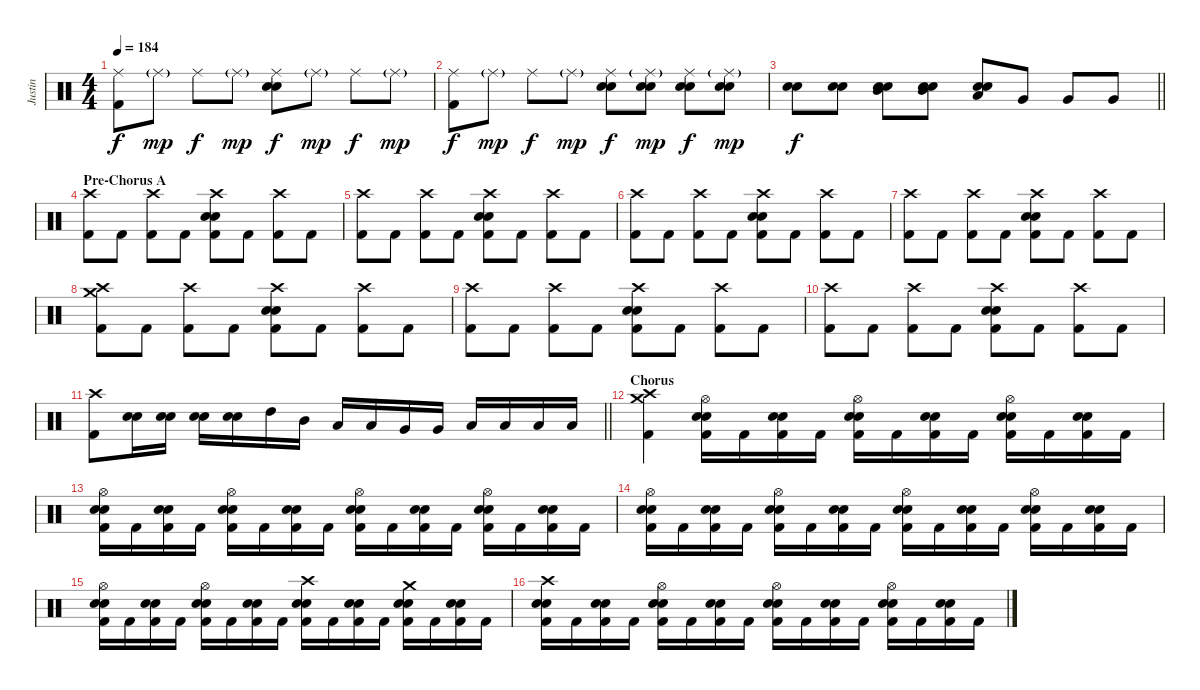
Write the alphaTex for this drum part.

\track ("Justin" "Justin") {instrument percussion}
\staff {score}
\articulation defaults
\ts (4 4)
\tempo 184
\clef neutral
\ks c
("Ride (middle)" "Kick (hit) 2").8{dy f} "Ride (middle)"{g}.8{dy mp} "Ride (middle)".8{dy f} "Ride (middle)"{g}.8{dy mp} ("Ride (middle)" "Electric Snare (hit)" "Snare (hit) 2").8{dy f} "Ride (middle)"{g}.8{dy mp} "Ride (middle)".8{dy f} "Ride (middle)"{g}.8{dy mp} |
("Ride (middle)" "Kick (hit) 2").8{dy f} "Ride (middle)"{g}.8{dy mp} "Ride (middle)".8{dy f} "Ride (middle)"{g}.8{dy mp} ("Ride (middle)" "Electric Snare (hit)" "Snare (hit) 2").8{dy f} ("Ride (middle)"{g} "Electric Snare (hit)" "Snare (hit) 2").8{dy mp} ("Ride (middle)" "Electric Snare (hit)" "Snare (hit) 2").8{dy f} ("Ride (middle)"{g} "Electric Snare (hit)" "Snare (hit) 2").8{dy mp} |
\barLineRight lightlight
("Electric Snare (hit)" "Snare (hit) 2").8{dy f} ("Electric Snare (hit)" "Snare (hit) 2").8 ("Electric Snare (hit)" "Snare (hit) 2" "Mid Tom (hit)").8 ("Electric Snare (hit)" "Snare (hit) 2" "Mid Tom (hit)").8 ("Electric Snare (hit)" "Snare (hit) 2" "Low Tom (hit)").8 "Very Low Tom (hit)".8 "Very Low Tom (hit)".8 "Very Low Tom (hit)".8 |
\section ("" "Pre-Chorus A")
("Crash high (hit)" "Kick (hit) 2").8 "Kick (hit) 2".8 ("Crash high (hit)" "Kick (hit) 2").8 "Kick (hit) 2".8 ("Crash high (hit)" "Electric Snare (hit)" "Snare (hit) 2" "Kick (hit) 2").8 "Kick (hit) 2".8 ("Crash high (hit)" "Kick (hit) 2").8 "Kick (hit) 2".8 |
("Crash high (hit)" "Kick (hit) 2").8 "Kick (hit) 2".8 ("Crash high (hit)" "Kick (hit) 2").8 "Kick (hit) 2".8 ("Crash high (hit)" "Electric Snare (hit)" "Snare (hit) 2" "Kick (hit) 2").8 "Kick (hit) 2".8 ("Crash high (hit)" "Kick (hit) 2").8 "Kick (hit) 2".8 |
("Crash high (hit)" "Kick (hit) 2").8 "Kick (hit) 2".8 ("Crash high (hit)" "Kick (hit) 2").8 "Kick (hit) 2".8 ("Crash high (hit)" "Electric Snare (hit)" "Snare (hit) 2" "Kick (hit) 2").8 "Kick (hit) 2".8 ("Crash high (hit)" "Kick (hit) 2").8 "Kick (hit) 2".8 |
("Crash high (hit)" "Kick (hit) 2").8 "Kick (hit) 2".8 ("Crash high (hit)" "Kick (hit) 2").8 "Kick (hit) 2".8 ("Crash high (hit)" "Electric Snare (hit)" "Snare (hit) 2" "Kick (hit) 2").8 "Kick (hit) 2".8 ("Crash high (hit)" "Kick (hit) 2").8 "Kick (hit) 2".8 |
("Crash high (hit)" "Crash medium (hit)" "Kick (hit) 2").8 "Kick (hit) 2".8 ("Crash high (hit)" "Kick (hit) 2").8 "Kick (hit) 2".8 ("Crash high (hit)" "Electric Snare (hit)" "Snare (hit) 2" "Kick (hit) 2").8 "Kick (hit) 2".8 ("Crash high (hit)" "Kick (hit) 2").8 "Kick (hit) 2".8 |
("Crash high (hit)" "Kick (hit) 2").8 "Kick (hit) 2".8 ("Crash high (hit)" "Kick (hit) 2").8 "Kick (hit) 2".8 ("Crash high (hit)" "Electric Snare (hit)" "Snare (hit) 2" "Kick (hit) 2").8 "Kick (hit) 2".8 ("Crash high (hit)" "Kick (hit) 2").8 "Kick (hit) 2".8 |
("Crash high (hit)" "Kick (hit) 2").8 "Kick (hit) 2".8 ("Crash high (hit)" "Kick (hit) 2").8 "Kick (hit) 2".8 ("Crash high (hit)" "Electric Snare (hit)" "Snare (hit) 2" "Kick (hit) 2").8 "Kick (hit) 2".8 ("Crash high (hit)" "Kick (hit) 2").8 "Kick (hit) 2".8 |
\barLineRight lightlight
("Crash high (hit)" "Kick (hit) 2").8 ("Electric Snare (hit)" "Snare (hit) 2").16 ("Electric Snare (hit)" "Snare (hit) 2").16 ("Electric Snare (hit)" "Snare (hit) 2").16 ("Electric Snare (hit)" "Snare (hit) 2").16 "High Tom (hit)".16 "Mid Tom (hit)".16 "Low Tom (hit)".16 "Low Tom (hit)".16 "Very Low Tom (hit)".16 "Very Low Tom (hit)".16 "Low Floor Tom (hit)".16 "Low Floor Tom (hit)".16 "Low Floor Tom (hit)".16 "Low Floor Tom (hit)".16 |
\section ("" "Chorus")
("Crash medium (hit)" "Crash high (hit)" "Kick (hit) 2").4 ("Hi-Hat (open)" "Electric Snare (hit)" "Snare (hit) 2" "Kick (hit) 2").16 "Kick (hit) 2".16 ("Electric Snare (hit)" "Snare (hit) 2" "Kick (hit) 2").16 "Kick (hit) 2".16 ("Hi-Hat (open)" "Electric Snare (hit)" "Snare (hit) 2" "Kick (hit) 2").16 "Kick (hit) 2".16 ("Electric Snare (hit)" "Snare (hit) 2" "Kick (hit) 2").16 "Kick (hit) 2".16 ("Hi-Hat (open)" "Electric Snare (hit)" "Snare (hit) 2" "Kick (hit) 2").16 "Kick (hit) 2".16 ("Electric Snare (hit)" "Snare (hit) 2" "Kick (hit) 2").16 "Kick (hit) 2".16 |
("Hi-Hat (open)" "Electric Snare (hit)" "Snare (hit) 2" "Kick (hit) 2").16 "Kick (hit) 2".16 ("Electric Snare (hit)" "Snare (hit) 2" "Kick (hit) 2").16 "Kick (hit) 2".16 ("Hi-Hat (open)" "Electric Snare (hit)" "Snare (hit) 2" "Kick (hit) 2").16 "Kick (hit) 2".16 ("Electric Snare (hit)" "Snare (hit) 2" "Kick (hit) 2").16 "Kick (hit) 2".16 ("Hi-Hat (open)" "Electric Snare (hit)" "Snare (hit) 2" "Kick (hit) 2").16 "Kick (hit) 2".16 ("Electric Snare (hit)" "Snare (hit) 2" "Kick (hit) 2").16 "Kick (hit) 2".16 ("Hi-Hat (open)" "Electric Snare (hit)" "Snare (hit) 2" "Kick (hit) 2").16 "Kick (hit) 2".16 ("Electric Snare (hit)" "Snare (hit) 2" "Kick (hit) 2").16 "Kick (hit) 2".16 |
("Hi-Hat (open)" "Electric Snare (hit)" "Snare (hit) 2" "Kick (hit) 2").16 "Kick (hit) 2".16 ("Electric Snare (hit)" "Snare (hit) 2" "Kick (hit) 2").16 "Kick (hit) 2".16 ("Hi-Hat (open)" "Electric Snare (hit)" "Snare (hit) 2" "Kick (hit) 2").16 "Kick (hit) 2".16 ("Electric Snare (hit)" "Snare (hit) 2" "Kick (hit) 2").16 "Kick (hit) 2".16 ("Hi-Hat (open)" "Electric Snare (hit)" "Snare (hit) 2" "Kick (hit) 2").16 "Kick (hit) 2".16 ("Electric Snare (hit)" "Snare (hit) 2" "Kick (hit) 2").16 "Kick (hit) 2".16 ("Hi-Hat (open)" "Electric Snare (hit)" "Snare (hit) 2" "Kick (hit) 2").16 "Kick (hit) 2".16 ("Electric Snare (hit)" "Snare (hit) 2" "Kick (hit) 2").16 "Kick (hit) 2".16 |
("Hi-Hat (open)" "Electric Snare (hit)" "Snare (hit) 2" "Kick (hit) 2").16 "Kick (hit) 2".16 ("Electric Snare (hit)" "Snare (hit) 2" "Kick (hit) 2").16 "Kick (hit) 2".16 ("Hi-Hat (open)" "Electric Snare (hit)" "Snare (hit) 2" "Kick (hit) 2").16 "Kick (hit) 2".16 ("Electric Snare (hit)" "Snare (hit) 2" "Kick (hit) 2").16 "Kick (hit) 2".16 ("Crash high (hit)" "Electric Snare (hit)" "Snare (hit) 2" "Kick (hit) 2").16 "Kick (hit) 2".16 ("Electric Snare (hit)" "Snare (hit) 2" "Kick (hit) 2").16 "Kick (hit) 2".16 ("Crash medium (hit)" "Electric Snare (hit)" "Snare (hit) 2" "Kick (hit) 2").16 "Kick (hit) 2".16 ("Electric Snare (hit)" "Snare (hit) 2" "Kick (hit) 2").16 "Kick (hit) 2".16 |
("Crash high (hit)" "Electric Snare (hit)" "Snare (hit) 2" "Kick (hit) 2").16 "Kick (hit) 2".16 ("Electric Snare (hit)" "Snare (hit) 2" "Kick (hit) 2").16 "Kick (hit) 2".16 ("Hi-Hat (open)" "Electric Snare (hit)" "Snare (hit) 2" "Kick (hit) 2").16 "Kick (hit) 2".16 ("Electric Snare (hit)" "Snare (hit) 2" "Kick (hit) 2").16 "Kick (hit) 2".16 ("Hi-Hat (open)" "Electric Snare (hit)" "Snare (hit) 2" "Kick (hit) 2").16 "Kick (hit) 2".16 ("Electric Snare (hit)" "Snare (hit) 2" "Kick (hit) 2").16 "Kick (hit) 2".16 ("Hi-Hat (open)" "Electric Snare (hit)" "Snare (hit) 2" "Kick (hit) 2").16 "Kick (hit) 2".16 ("Electric Snare (hit)" "Snare (hit) 2" "Kick (hit) 2").16 "Kick (hit) 2".16
